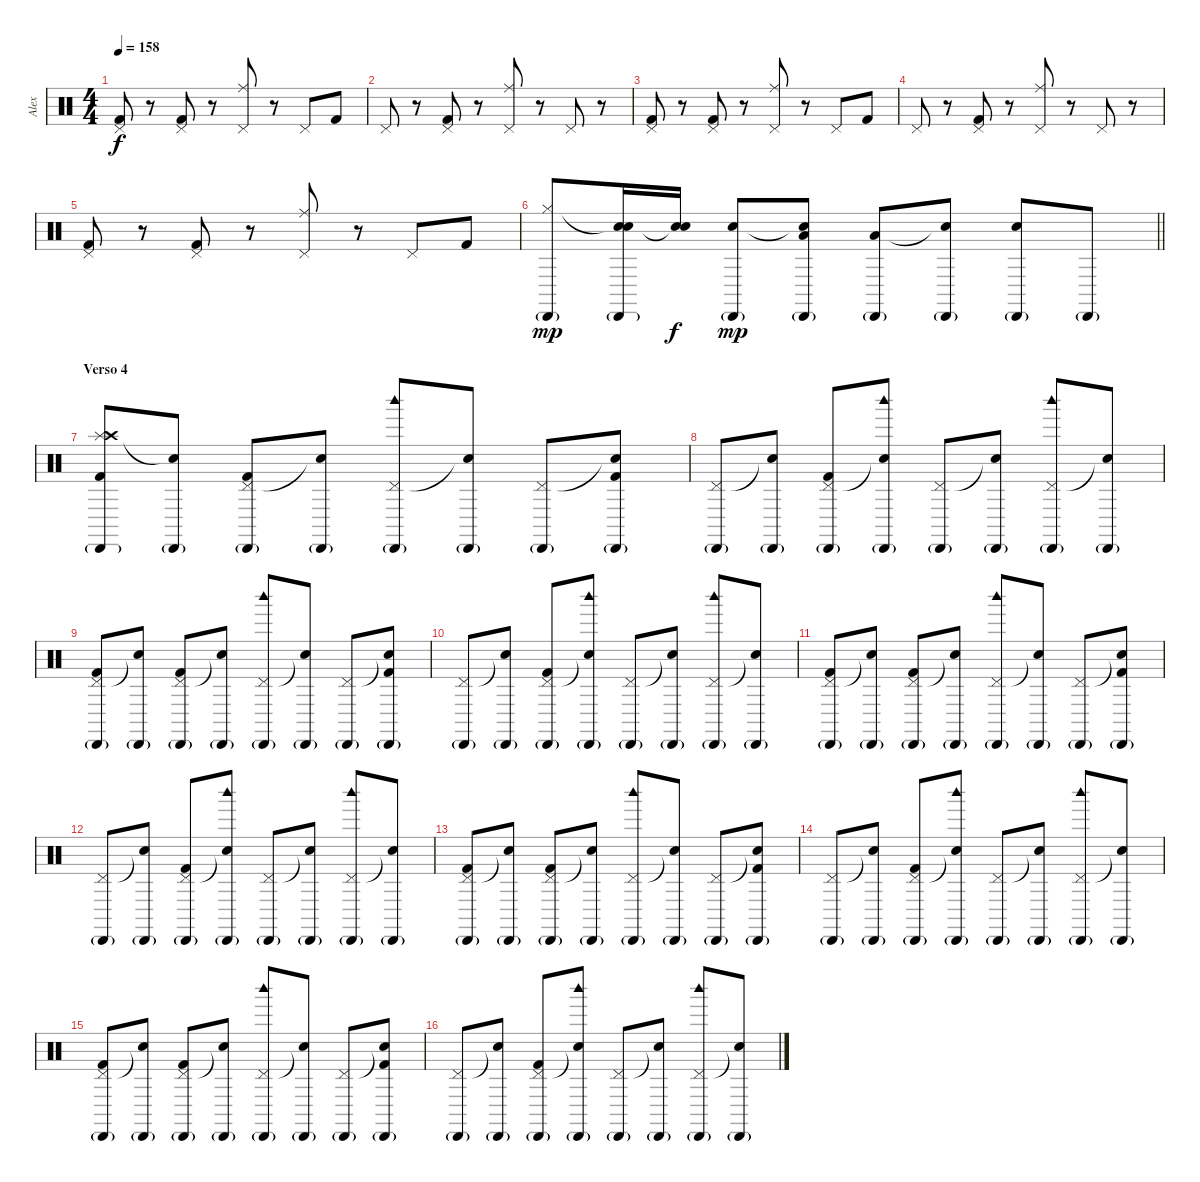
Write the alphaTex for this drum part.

\track ("Alex" "Alex") {instrument percussion}
\staff {score}
\articulation defaults
\ts (4 4)
\tempo 158
\clef neutral
\ks c
("Pedal Hi-Hat (hit)" "Kick (hit) 2").8{dy f} r.8 ("Pedal Hi-Hat (hit)" "Kick (hit) 2").8 r.8 ("Pedal Hi-Hat (hit)" "Ride (middle)").8 r.8 "Pedal Hi-Hat (hit)".8 "Kick (hit) 2".8 |
"Pedal Hi-Hat (hit)".8 r.8 ("Pedal Hi-Hat (hit)" "Kick (hit) 2").8 r.8 ("Pedal Hi-Hat (hit)" "Ride (middle)").8 r.8 "Pedal Hi-Hat (hit)".8 r.8 |
("Pedal Hi-Hat (hit)" "Kick (hit) 2").8 r.8 ("Pedal Hi-Hat (hit)" "Kick (hit) 2").8 r.8 ("Pedal Hi-Hat (hit)" "Ride (middle)").8 r.8 "Pedal Hi-Hat (hit)".8 "Kick (hit) 2".8 |
"Pedal Hi-Hat (hit)".8 r.8 ("Pedal Hi-Hat (hit)" "Kick (hit) 2").8 r.8 ("Pedal Hi-Hat (hit)" "Ride (middle)").8 r.8 "Pedal Hi-Hat (hit)".8 r.8 |
("Pedal Hi-Hat (hit)" "Kick (hit) 2").8 r.8 ("Pedal Hi-Hat (hit)" "Kick (hit) 2").8 r.8 ("Pedal Hi-Hat (hit)" "Ride (middle)").8 r.8 "Pedal Hi-Hat (hit)".8 "Kick (hit) 2".8 |
\barLineRight lightlight
("Hi-Hat (closed)" "Cabasa (hit)"{g}).8{dy mp} ("Snare (hit)"{t} "Electric Snare (hit)" "Cabasa (hit)"{g}).16 ("Snare (hit)"{t} "Electric Snare (hit)").16{dy f} ("Electric Snare (hit)" "Cabasa (hit)"{g}).8{dy mp} ("Snare (hit)"{t} "Low Tom (hit)" "Cabasa (hit)"{g}).8 ("Low Tom (hit)" "Cabasa (hit)"{g}).8 ("Snare (hit)"{t} "Cabasa (hit)"{g}).8 ("Electric Snare (hit)" "Cabasa (hit)"{g}).8 "Cabasa (hit)"{g}.8 |
\section ("" "Verso 4")
("Splash (hit)" "Kick (hit) 2" "Crash high (hit)" "Cabasa (hit)"{g}).8 ("Snare (hit)"{t} "Cabasa (hit)"{g}).8 ("Pedal Hi-Hat (hit)" "Kick (hit) 2" "Cabasa (hit)"{g}).8 ("Snare (hit)"{t} "Cabasa (hit)"{g}).8 ("Pedal Hi-Hat (hit)" "Woodblock high (hit)" "Cabasa (hit)"{g}).8 ("Snare (hit)"{t} "Cabasa (hit)"{g}).8 ("Pedal Hi-Hat (hit)" "Cabasa (hit)"{g}).8 ("Snare (hit)"{t} "Kick (hit) 2" "Cabasa (hit)"{g}).8 |
("Pedal Hi-Hat (hit)" "Cabasa (hit)"{g}).8 ("Snare (hit)"{t} "Cabasa (hit)"{g}).8 ("Pedal Hi-Hat (hit)" "Kick (hit) 2" "Cabasa (hit)"{g}).8 ("Snare (hit)"{t} "Woodblock high (hit)" "Cabasa (hit)"{g}).8 ("Pedal Hi-Hat (hit)" "Cabasa (hit)"{g}).8 ("Snare (hit)"{t} "Cabasa (hit)"{g}).8 ("Pedal Hi-Hat (hit)" "Woodblock high (hit)" "Cabasa (hit)"{g}).8 ("Snare (hit)"{t} "Cabasa (hit)"{g}).8 |
("Pedal Hi-Hat (hit)" "Kick (hit) 2" "Cabasa (hit)"{g}).8 ("Snare (hit)"{t} "Cabasa (hit)"{g}).8 ("Pedal Hi-Hat (hit)" "Kick (hit) 2" "Cabasa (hit)"{g}).8 ("Snare (hit)"{t} "Cabasa (hit)"{g}).8 ("Pedal Hi-Hat (hit)" "Woodblock high (hit)" "Cabasa (hit)"{g}).8 ("Snare (hit)"{t} "Cabasa (hit)"{g}).8 ("Pedal Hi-Hat (hit)" "Cabasa (hit)"{g}).8 ("Snare (hit)"{t} "Kick (hit) 2" "Cabasa (hit)"{g}).8 |
("Pedal Hi-Hat (hit)" "Cabasa (hit)"{g}).8 ("Snare (hit)"{t} "Cabasa (hit)"{g}).8 ("Pedal Hi-Hat (hit)" "Kick (hit) 2" "Cabasa (hit)"{g}).8 ("Snare (hit)"{t} "Woodblock high (hit)" "Cabasa (hit)"{g}).8 ("Pedal Hi-Hat (hit)" "Cabasa (hit)"{g}).8 ("Snare (hit)"{t} "Cabasa (hit)"{g}).8 ("Pedal Hi-Hat (hit)" "Woodblock high (hit)" "Cabasa (hit)"{g}).8 ("Snare (hit)"{t} "Cabasa (hit)"{g}).8 |
("Pedal Hi-Hat (hit)" "Kick (hit) 2" "Cabasa (hit)"{g}).8 ("Snare (hit)"{t} "Cabasa (hit)"{g}).8 ("Pedal Hi-Hat (hit)" "Kick (hit) 2" "Cabasa (hit)"{g}).8 ("Snare (hit)"{t} "Cabasa (hit)"{g}).8 ("Pedal Hi-Hat (hit)" "Woodblock high (hit)" "Cabasa (hit)"{g}).8 ("Snare (hit)"{t} "Cabasa (hit)"{g}).8 ("Pedal Hi-Hat (hit)" "Cabasa (hit)"{g}).8 ("Snare (hit)"{t} "Kick (hit) 2" "Cabasa (hit)"{g}).8 |
("Pedal Hi-Hat (hit)" "Cabasa (hit)"{g}).8 ("Snare (hit)"{t} "Cabasa (hit)"{g}).8 ("Pedal Hi-Hat (hit)" "Kick (hit) 2" "Cabasa (hit)"{g}).8 ("Snare (hit)"{t} "Woodblock high (hit)" "Cabasa (hit)"{g}).8 ("Pedal Hi-Hat (hit)" "Cabasa (hit)"{g}).8 ("Snare (hit)"{t} "Cabasa (hit)"{g}).8 ("Pedal Hi-Hat (hit)" "Woodblock high (hit)" "Cabasa (hit)"{g}).8 ("Snare (hit)"{t} "Cabasa (hit)"{g}).8 |
("Pedal Hi-Hat (hit)" "Kick (hit) 2" "Cabasa (hit)"{g}).8 ("Snare (hit)"{t} "Cabasa (hit)"{g}).8 ("Pedal Hi-Hat (hit)" "Kick (hit) 2" "Cabasa (hit)"{g}).8 ("Snare (hit)"{t} "Cabasa (hit)"{g}).8 ("Pedal Hi-Hat (hit)" "Woodblock high (hit)" "Cabasa (hit)"{g}).8 ("Snare (hit)"{t} "Cabasa (hit)"{g}).8 ("Pedal Hi-Hat (hit)" "Cabasa (hit)"{g}).8 ("Snare (hit)"{t} "Kick (hit) 2" "Cabasa (hit)"{g}).8 |
("Pedal Hi-Hat (hit)" "Cabasa (hit)"{g}).8 ("Snare (hit)"{t} "Cabasa (hit)"{g}).8 ("Pedal Hi-Hat (hit)" "Kick (hit) 2" "Cabasa (hit)"{g}).8 ("Snare (hit)"{t} "Woodblock high (hit)" "Cabasa (hit)"{g}).8 ("Pedal Hi-Hat (hit)" "Cabasa (hit)"{g}).8 ("Snare (hit)"{t} "Cabasa (hit)"{g}).8 ("Pedal Hi-Hat (hit)" "Woodblock high (hit)" "Cabasa (hit)"{g}).8 ("Snare (hit)"{t} "Cabasa (hit)"{g}).8 |
("Pedal Hi-Hat (hit)" "Kick (hit) 2" "Cabasa (hit)"{g}).8 ("Snare (hit)"{t} "Cabasa (hit)"{g}).8 ("Pedal Hi-Hat (hit)" "Kick (hit) 2" "Cabasa (hit)"{g}).8 ("Snare (hit)"{t} "Cabasa (hit)"{g}).8 ("Pedal Hi-Hat (hit)" "Woodblock high (hit)" "Cabasa (hit)"{g}).8 ("Snare (hit)"{t} "Cabasa (hit)"{g}).8 ("Pedal Hi-Hat (hit)" "Cabasa (hit)"{g}).8 ("Snare (hit)"{t} "Kick (hit) 2" "Cabasa (hit)"{g}).8 |
("Pedal Hi-Hat (hit)" "Cabasa (hit)"{g}).8 ("Snare (hit)"{t} "Cabasa (hit)"{g}).8 ("Pedal Hi-Hat (hit)" "Kick (hit) 2" "Cabasa (hit)"{g}).8 ("Snare (hit)"{t} "Woodblock high (hit)" "Cabasa (hit)"{g}).8 ("Pedal Hi-Hat (hit)" "Cabasa (hit)"{g}).8 ("Snare (hit)"{t} "Cabasa (hit)"{g}).8 ("Pedal Hi-Hat (hit)" "Woodblock high (hit)" "Cabasa (hit)"{g}).8 ("Snare (hit)"{t} "Cabasa (hit)"{g}).8
